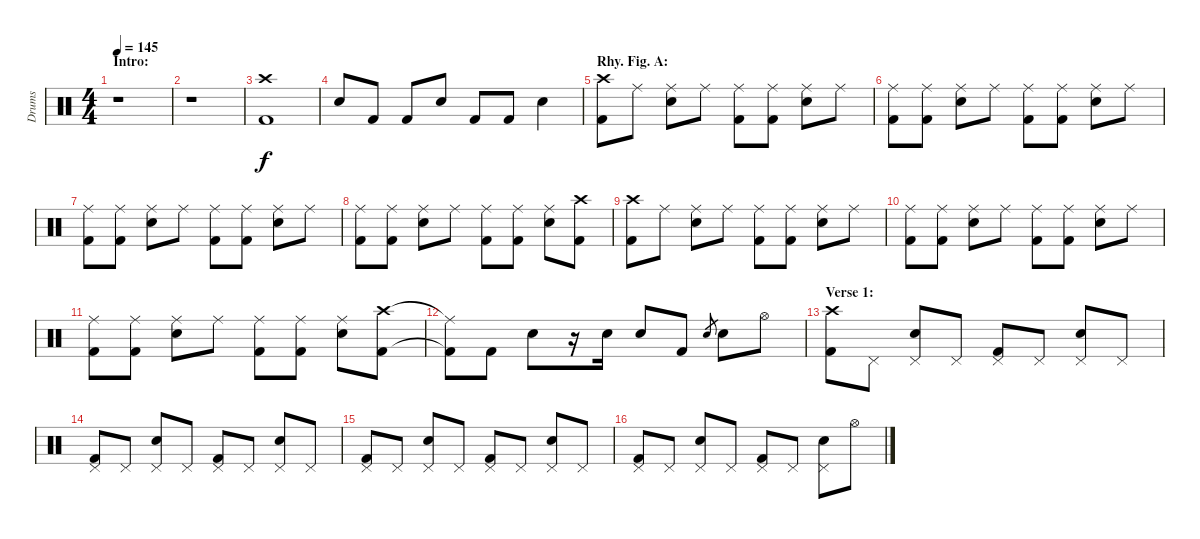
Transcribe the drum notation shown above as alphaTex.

\track ("Drums" "Drums") {instrument percussion}
\staff {score}
\articulation defaults
\ts (4 4)
\section ("" "Intro:")
\tempo 145
\clef neutral
\ks c
r.1{dy f} |
r.1 |
("Crash high (hit)" "Kick (hit) 2").1 |
"Electric Snare (hit)".8 "Kick (hit) 2".8 "Kick (hit) 2".8 "Electric Snare (hit)".8 "Kick (hit) 2".8 "Kick (hit) 2".8 "Electric Snare (hit)".4 |
\section ("" "Rhy. Fig. A:")
("Crash high (hit)" "Kick (hit) 2").8 "Ride (middle)".8 ("Ride (middle)" "Electric Snare (hit)").8 "Ride (middle)".8 ("Ride (middle)" "Kick (hit) 2").8 ("Ride (middle)" "Kick (hit) 2").8 ("Ride (middle)" "Electric Snare (hit)").8 "Ride (middle)".8 |
("Ride (middle)" "Kick (hit) 2").8 ("Ride (middle)" "Kick (hit) 2").8 ("Ride (middle)" "Electric Snare (hit)").8 "Ride (middle)".8 ("Ride (middle)" "Kick (hit) 2").8 ("Ride (middle)" "Kick (hit) 2").8 ("Ride (middle)" "Electric Snare (hit)").8 "Ride (middle)".8 |
("Ride (middle)" "Kick (hit) 2").8 ("Ride (middle)" "Kick (hit) 2").8 ("Ride (middle)" "Electric Snare (hit)").8 "Ride (middle)".8 ("Ride (middle)" "Kick (hit) 2").8 ("Ride (middle)" "Kick (hit) 2").8 ("Ride (middle)" "Electric Snare (hit)").8 "Ride (middle)".8 |
("Ride (middle)" "Kick (hit) 2").8 ("Ride (middle)" "Kick (hit) 2").8 ("Ride (middle)" "Electric Snare (hit)").8 "Ride (middle)".8 ("Ride (middle)" "Kick (hit) 2").8 ("Ride (middle)" "Kick (hit) 2").8 ("Ride (middle)" "Electric Snare (hit)").8 ("Crash high (hit)" "Kick (hit) 2").8 |
("Crash high (hit)" "Kick (hit) 2").8 "Ride (middle)".8 ("Ride (middle)" "Electric Snare (hit)").8 "Ride (middle)".8 ("Ride (middle)" "Kick (hit) 2").8 ("Ride (middle)" "Kick (hit) 2").8 ("Ride (middle)" "Electric Snare (hit)").8 "Ride (middle)".8 |
("Ride (middle)" "Kick (hit) 2").8 ("Ride (middle)" "Kick (hit) 2").8 ("Ride (middle)" "Electric Snare (hit)").8 "Ride (middle)".8 ("Ride (middle)" "Kick (hit) 2").8 ("Ride (middle)" "Kick (hit) 2").8 ("Ride (middle)" "Electric Snare (hit)").8 "Ride (middle)".8 |
("Ride (middle)" "Kick (hit) 2").8 ("Ride (middle)" "Kick (hit) 2").8 ("Ride (middle)" "Electric Snare (hit)").8 "Ride (middle)".8 ("Ride (middle)" "Kick (hit) 2").8 ("Ride (middle)" "Kick (hit) 2").8 ("Ride (middle)" "Electric Snare (hit)").8 ("Crash high (hit)" "Kick (hit) 2").8 |
("Ride (middle)"{t} "Kick (hit) 2"{t}).8 "Kick (hit) 2".8 "Electric Snare (hit)".8 r.16 "Electric Snare (hit)".16 "Electric Snare (hit)".8 "Kick (hit) 2".8 "Electric Snare (hit)".8{gr} "Electric Snare (hit)".8 "Hi-Hat (open)".8 |
\section ("" "Verse 1:")
("Crash high (hit)" "Kick (hit) 2").8 "Pedal Hi-Hat (hit)".8 ("Pedal Hi-Hat (hit)" "Electric Snare (hit)").8 "Pedal Hi-Hat (hit)".8 ("Pedal Hi-Hat (hit)" "Kick (hit) 2").8 "Pedal Hi-Hat (hit)".8 ("Pedal Hi-Hat (hit)" "Electric Snare (hit)").8 "Pedal Hi-Hat (hit)".8 |
("Pedal Hi-Hat (hit)" "Kick (hit) 2").8 "Pedal Hi-Hat (hit)".8 ("Pedal Hi-Hat (hit)" "Electric Snare (hit)").8 "Pedal Hi-Hat (hit)".8 ("Pedal Hi-Hat (hit)" "Kick (hit) 2").8 "Pedal Hi-Hat (hit)".8 ("Pedal Hi-Hat (hit)" "Electric Snare (hit)").8 "Pedal Hi-Hat (hit)".8 |
("Pedal Hi-Hat (hit)" "Kick (hit) 2").8 "Pedal Hi-Hat (hit)".8 ("Pedal Hi-Hat (hit)" "Electric Snare (hit)").8 "Pedal Hi-Hat (hit)".8 ("Pedal Hi-Hat (hit)" "Kick (hit) 2").8 "Pedal Hi-Hat (hit)".8 ("Pedal Hi-Hat (hit)" "Electric Snare (hit)").8 "Pedal Hi-Hat (hit)".8 |
("Pedal Hi-Hat (hit)" "Kick (hit) 2").8 "Pedal Hi-Hat (hit)".8 ("Pedal Hi-Hat (hit)" "Electric Snare (hit)").8 "Pedal Hi-Hat (hit)".8 ("Pedal Hi-Hat (hit)" "Kick (hit) 2").8 "Pedal Hi-Hat (hit)".8 ("Pedal Hi-Hat (hit)" "Electric Snare (hit)").8 "Hi-Hat (open)".8
